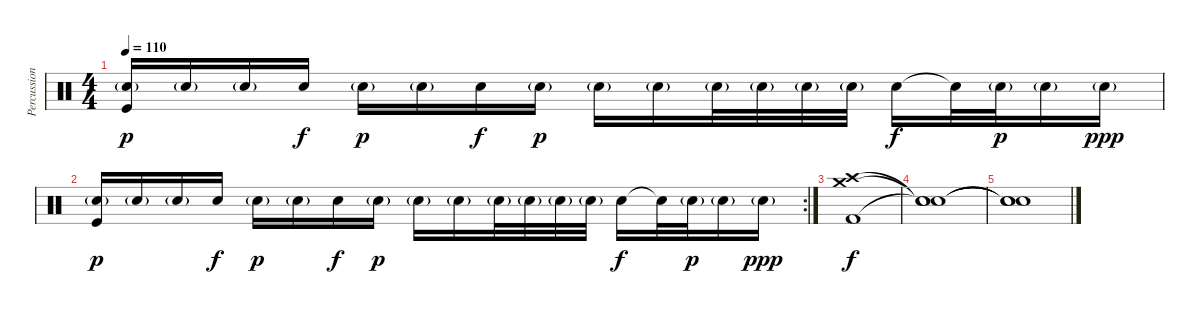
\track ("Percussion" "Percussion") {instrument percussion}
\staff {score}
\articulation defaults
\ts (4 4)
\tempo 110
\clef neutral
\ks c
("Electric Snare (hit)"{g} "Kick (hit)").16{dy p} "Electric Snare (hit)"{g}.16 "Electric Snare (hit)"{g}.16 "Electric Snare (hit)".16{dy f} "Electric Snare (hit)"{g}.16{dy p} "Electric Snare (hit)"{g}.16 "Electric Snare (hit)".16{dy f} "Electric Snare (hit)"{g}.16{dy p} "Electric Snare (hit)"{g}.16 "Electric Snare (hit)"{g}.16 "Electric Snare (hit)"{g}.32 "Electric Snare (hit)"{g}.32 "Electric Snare (hit)"{g}.32 "Electric Snare (hit)"{g}.32 "Electric Snare (hit)".16{dy f} "Electric Snare (hit)"{t}.32 "Electric Snare (hit)"{g}.32{dy p} "Electric Snare (hit)"{g}.16 "Electric Snare (hit)"{g}.16{dy ppp} |
\rc 2
("Electric Snare (hit)"{g} "Kick (hit)").16{dy p} "Electric Snare (hit)"{g}.16 "Electric Snare (hit)"{g}.16 "Electric Snare (hit)".16{dy f} "Electric Snare (hit)"{g}.16{dy p} "Electric Snare (hit)"{g}.16 "Electric Snare (hit)".16{dy f} "Electric Snare (hit)"{g}.16{dy p} "Electric Snare (hit)"{g}.16 "Electric Snare (hit)"{g}.16 "Electric Snare (hit)"{g}.32 "Electric Snare (hit)"{g}.32 "Electric Snare (hit)"{g}.32 "Electric Snare (hit)"{g}.32 "Electric Snare (hit)".16{dy f} "Electric Snare (hit)"{t}.32 "Electric Snare (hit)"{g}.32{dy p} "Electric Snare (hit)"{g}.16 "Electric Snare (hit)"{g}.16{dy ppp} |
("Crash medium (hit)" "Crash high (hit)" "Kick (hit) 2").1{dy f} |
("Snare (hit)"{t} "Snare (hit)"{t} "Snare (hit)"{t}).1 |
("Snare (hit)"{t} "Snare (hit)"{t} "Snare (hit)"{t}).1
